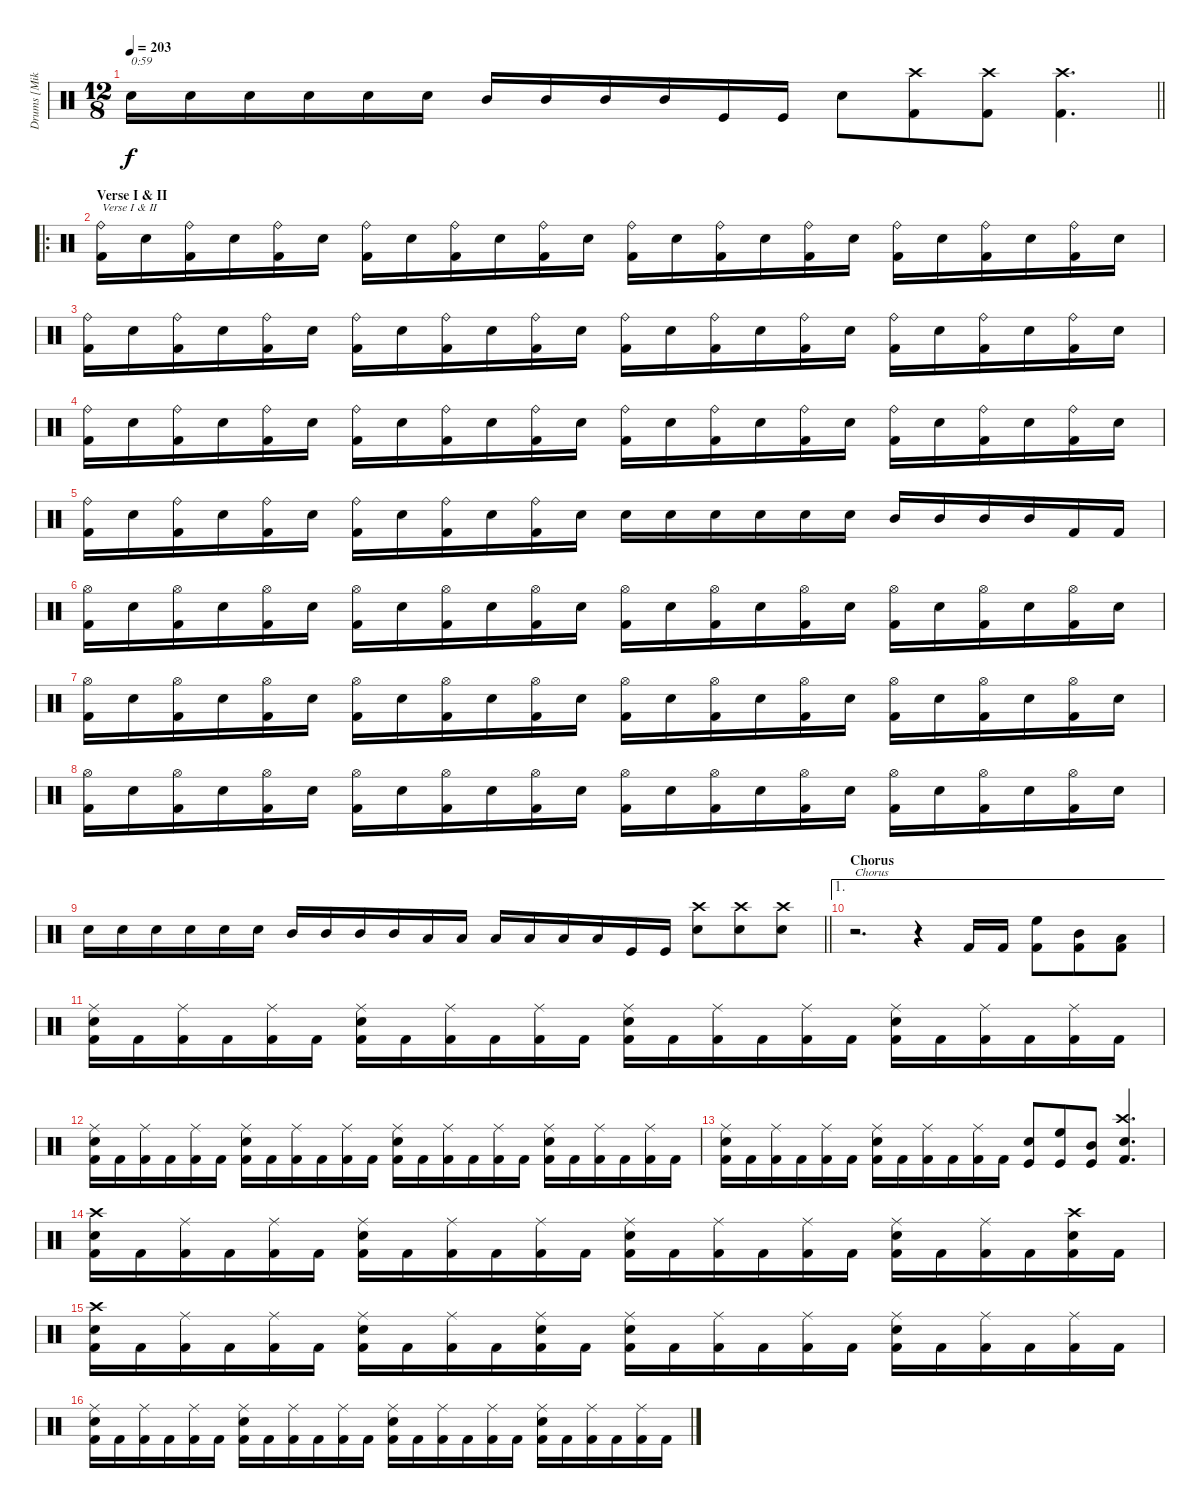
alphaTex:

\track ("Drums [Mike Smith]" "Drums [Mik") {instrument percussion}
\staff {score}
\articulation defaults
\ts (12 8)
\tempo 203
\clef neutral
\barLineRight lightlight
\ks c "Electric Snare (hit)".16{txt "0:59" dy f} "Electric Snare (hit)".16 "Electric Snare (hit)".16 "Electric Snare (hit)".16 "Electric Snare (hit)".16 "Electric Snare (hit)".16 "Mid Tom (hit)".16 "Mid Tom (hit)".16 "Mid Tom (hit)".16 "Mid Tom (hit)".16 "Kick (hit)".16 "Kick (hit)".16 "Electric Snare (hit)".8
("Crash high (hit)" "Kick (hit) 2").8 ("Crash high (hit)" "Kick (hit) 2").8 ("Crash high (hit)" "Kick (hit) 2").4{d} |
\ro
\section ("" "Verse I & II")
("Ride (bell)" "Kick (hit) 2").16{txt "Verse I & II"} "Electric Snare (hit)".16 ("Ride (bell)" "Kick (hit) 2").16 "Electric Snare (hit)".16 ("Ride (bell)" "Kick (hit) 2").16 "Electric Snare (hit)".16 ("Ride (bell)" "Kick (hit) 2").16 "Electric Snare (hit)".16 ("Ride (bell)" "Kick (hit) 2").16 "Electric Snare (hit)".16 ("Ride (bell)" "Kick (hit) 2").16 "Electric Snare (hit)".16 ("Ride (bell)" "Kick (hit) 2").16 "Electric Snare (hit)".16 ("Ride (bell)" "Kick (hit) 2").16 "Electric Snare (hit)".16 ("Ride (bell)" "Kick (hit) 2").16 "Electric Snare (hit)".16 ("Ride (bell)" "Kick (hit) 2").16 "Electric Snare (hit)".16 ("Ride (bell)" "Kick (hit) 2").16 "Electric Snare (hit)".16 ("Ride (bell)" "Kick (hit) 2").16 "Electric Snare (hit)".16 |
("Ride (bell)" "Kick (hit) 2").16 "Electric Snare (hit)".16 ("Ride (bell)" "Kick (hit) 2").16 "Electric Snare (hit)".16 ("Ride (bell)" "Kick (hit) 2").16 "Electric Snare (hit)".16 ("Ride (bell)" "Kick (hit) 2").16 "Electric Snare (hit)".16 ("Ride (bell)" "Kick (hit) 2").16 "Electric Snare (hit)".16 ("Ride (bell)" "Kick (hit) 2").16 "Electric Snare (hit)".16 ("Ride (bell)" "Kick (hit) 2").16 "Electric Snare (hit)".16 ("Ride (bell)" "Kick (hit) 2").16 "Electric Snare (hit)".16 ("Ride (bell)" "Kick (hit) 2").16 "Electric Snare (hit)".16 ("Ride (bell)" "Kick (hit) 2").16 "Electric Snare (hit)".16 ("Ride (bell)" "Kick (hit) 2").16 "Electric Snare (hit)".16 ("Ride (bell)" "Kick (hit) 2").16 "Electric Snare (hit)".16 |
("Ride (bell)" "Kick (hit) 2").16 "Electric Snare (hit)".16 ("Ride (bell)" "Kick (hit) 2").16 "Electric Snare (hit)".16 ("Ride (bell)" "Kick (hit) 2").16 "Electric Snare (hit)".16 ("Ride (bell)" "Kick (hit) 2").16 "Electric Snare (hit)".16 ("Ride (bell)" "Kick (hit) 2").16 "Electric Snare (hit)".16 ("Ride (bell)" "Kick (hit) 2").16 "Electric Snare (hit)".16 ("Ride (bell)" "Kick (hit) 2").16 "Electric Snare (hit)".16 ("Ride (bell)" "Kick (hit) 2").16 "Electric Snare (hit)".16 ("Ride (bell)" "Kick (hit) 2").16 "Electric Snare (hit)".16 ("Ride (bell)" "Kick (hit) 2").16 "Electric Snare (hit)".16 ("Ride (bell)" "Kick (hit) 2").16 "Electric Snare (hit)".16 ("Ride (bell)" "Kick (hit) 2").16 "Electric Snare (hit)".16 |
("Ride (bell)" "Kick (hit) 2").16 "Electric Snare (hit)".16 ("Ride (bell)" "Kick (hit) 2").16 "Electric Snare (hit)".16 ("Ride (bell)" "Kick (hit) 2").16 "Electric Snare (hit)".16 ("Ride (bell)" "Kick (hit) 2").16 "Electric Snare (hit)".16 ("Ride (bell)" "Kick (hit) 2").16 "Electric Snare (hit)".16 ("Ride (bell)" "Kick (hit) 2").16 "Electric Snare (hit)".16 "Electric Snare (hit)".16 "Electric Snare (hit)".16 "Electric Snare (hit)".16 "Electric Snare (hit)".16 "Electric Snare (hit)".16 "Electric Snare (hit)".16 "Mid Tom (hit)".16 "Mid Tom (hit)".16 "Mid Tom (hit)".16 "Mid Tom (hit)".16 "Kick (hit) 2".16 "Kick (hit) 2".16 |
("Hi-Hat (open)" "Kick (hit) 2").16 "Electric Snare (hit)".16 ("Hi-Hat (open)" "Kick (hit) 2").16 "Electric Snare (hit)".16 ("Hi-Hat (open)" "Kick (hit) 2").16 "Electric Snare (hit)".16 ("Hi-Hat (open)" "Kick (hit) 2").16 "Electric Snare (hit)".16 ("Hi-Hat (open)" "Kick (hit) 2").16 "Electric Snare (hit)".16 ("Hi-Hat (open)" "Kick (hit) 2").16 "Electric Snare (hit)".16 ("Hi-Hat (open)" "Kick (hit) 2").16 "Electric Snare (hit)".16 ("Hi-Hat (open)" "Kick (hit) 2").16 "Electric Snare (hit)".16 ("Hi-Hat (open)" "Kick (hit) 2").16 "Electric Snare (hit)".16 ("Hi-Hat (open)" "Kick (hit) 2").16 "Electric Snare (hit)".16 ("Hi-Hat (open)" "Kick (hit) 2").16 "Electric Snare (hit)".16 ("Hi-Hat (open)" "Kick (hit) 2").16 "Electric Snare (hit)".16 |
("Hi-Hat (open)" "Kick (hit) 2").16 "Electric Snare (hit)".16 ("Hi-Hat (open)" "Kick (hit) 2").16 "Electric Snare (hit)".16 ("Hi-Hat (open)" "Kick (hit) 2").16 "Electric Snare (hit)".16 ("Hi-Hat (open)" "Kick (hit) 2").16 "Electric Snare (hit)".16 ("Hi-Hat (open)" "Kick (hit) 2").16 "Electric Snare (hit)".16 ("Hi-Hat (open)" "Kick (hit) 2").16 "Electric Snare (hit)".16 ("Hi-Hat (open)" "Kick (hit) 2").16 "Electric Snare (hit)".16 ("Hi-Hat (open)" "Kick (hit) 2").16 "Electric Snare (hit)".16 ("Hi-Hat (open)" "Kick (hit) 2").16 "Electric Snare (hit)".16 ("Hi-Hat (open)" "Kick (hit) 2").16 "Electric Snare (hit)".16 ("Hi-Hat (open)" "Kick (hit) 2").16 "Electric Snare (hit)".16 ("Hi-Hat (open)" "Kick (hit) 2").16 "Electric Snare (hit)".16 |
("Hi-Hat (open)" "Kick (hit) 2").16 "Electric Snare (hit)".16 ("Hi-Hat (open)" "Kick (hit) 2").16 "Electric Snare (hit)".16 ("Hi-Hat (open)" "Kick (hit) 2").16 "Electric Snare (hit)".16 ("Hi-Hat (open)" "Kick (hit) 2").16 "Electric Snare (hit)".16 ("Hi-Hat (open)" "Kick (hit) 2").16 "Electric Snare (hit)".16 ("Hi-Hat (open)" "Kick (hit) 2").16 "Electric Snare (hit)".16 ("Hi-Hat (open)" "Kick (hit) 2").16 "Electric Snare (hit)".16 ("Hi-Hat (open)" "Kick (hit) 2").16 "Electric Snare (hit)".16 ("Hi-Hat (open)" "Kick (hit) 2").16 "Electric Snare (hit)".16 ("Hi-Hat (open)" "Kick (hit) 2").16 "Electric Snare (hit)".16 ("Hi-Hat (open)" "Kick (hit) 2").16 "Electric Snare (hit)".16 ("Hi-Hat (open)" "Kick (hit) 2").16 "Electric Snare (hit)".16 |
\barLineRight lightlight "Electric Snare (hit)".16 "Electric Snare (hit)".16 "Electric Snare (hit)".16 "Electric Snare (hit)".16 "Electric Snare (hit)".16 "Electric Snare (hit)".16 "Mid Tom (hit)".16 "Mid Tom (hit)".16 "Mid Tom (hit)".16 "Mid Tom (hit)".16 "Low Tom (hit)".16 "Low Tom (hit)".16 "Low Tom (hit)".16 "Low Tom (hit)".16 "Low Tom (hit)".16 "Low Tom (hit)".16 "Kick (hit)".16 "Kick (hit)".16
("Crash high (hit)" "Electric Snare (hit)").8 ("Crash high (hit)" "Electric Snare (hit)").8 ("Crash high (hit)" "Electric Snare (hit)").8 |
\ae 1
\section ("" "Chorus")
r.2{d txt "Chorus"} r.4 "Kick (hit) 2".16 "Kick (hit) 2".16 ("High Floor Tom (hit)" "Kick (hit) 2").8 ("Mid Tom (hit)" "Kick (hit) 2").8 ("Low Tom (hit)" "Kick (hit) 2").8 |
("Ride (middle)" "Electric Snare (hit)" "Kick (hit) 2").16 "Kick (hit) 2".16 ("Ride (middle)" "Kick (hit) 2").16 "Kick (hit) 2".16 ("Ride (middle)" "Kick (hit) 2").16 "Kick (hit) 2".16 ("Ride (middle)" "Electric Snare (hit)" "Kick (hit) 2").16 "Kick (hit) 2".16 ("Ride (middle)" "Kick (hit) 2").16 "Kick (hit) 2".16 ("Ride (middle)" "Kick (hit) 2").16 "Kick (hit) 2".16 ("Ride (middle)" "Electric Snare (hit)" "Kick (hit) 2").16 "Kick (hit) 2".16 ("Ride (middle)" "Kick (hit) 2").16 "Kick (hit) 2".16 ("Ride (middle)" "Kick (hit) 2").16 "Kick (hit) 2".16 ("Ride (middle)" "Electric Snare (hit)" "Kick (hit) 2").16 "Kick (hit) 2".16 ("Ride (middle)" "Kick (hit) 2").16 "Kick (hit) 2".16 ("Ride (middle)" "Kick (hit) 2").16 "Kick (hit) 2".16 |
("Ride (middle)" "Electric Snare (hit)" "Kick (hit) 2").16 "Kick (hit) 2".16 ("Ride (middle)" "Kick (hit) 2").16 "Kick (hit) 2".16 ("Ride (middle)" "Kick (hit) 2").16 "Kick (hit) 2".16 ("Ride (middle)" "Electric Snare (hit)" "Kick (hit) 2").16 "Kick (hit) 2".16 ("Ride (middle)" "Kick (hit) 2").16 "Kick (hit) 2".16 ("Ride (middle)" "Kick (hit) 2").16 "Kick (hit) 2".16 ("Ride (middle)" "Electric Snare (hit)" "Kick (hit) 2").16 "Kick (hit) 2".16 ("Ride (middle)" "Kick (hit) 2").16 "Kick (hit) 2".16 ("Ride (middle)" "Kick (hit) 2").16 "Kick (hit) 2".16 ("Ride (middle)" "Electric Snare (hit)" "Kick (hit) 2").16 "Kick (hit) 2".16 ("Ride (middle)" "Kick (hit) 2").16 "Kick (hit) 2".16 ("Ride (middle)" "Kick (hit) 2").16 "Kick (hit) 2".16 |
("Ride (middle)" "Electric Snare (hit)" "Kick (hit) 2").16 "Kick (hit) 2".16 ("Ride (middle)" "Kick (hit) 2").16 "Kick (hit) 2".16 ("Ride (middle)" "Kick (hit) 2").16 "Kick (hit) 2".16 ("Ride (middle)" "Electric Snare (hit)" "Kick (hit) 2").16 "Kick (hit) 2".16 ("Ride (middle)" "Kick (hit) 2").16 "Kick (hit) 2".16 ("Ride (middle)" "Kick (hit) 2").16 "Kick (hit) 2".16 ("Electric Snare (hit)" "Kick (hit)").8 ("High Floor Tom (hit)" "Kick (hit)").8 ("Mid Tom (hit)" "Kick (hit)").8 ("Crash high (hit)" "Electric Snare (hit)" "Kick (hit) 2").4{d} |
("Crash high (hit)" "Electric Snare (hit)" "Kick (hit) 2").16 "Kick (hit) 2".16 ("Ride (middle)" "Kick (hit) 2").16 "Kick (hit) 2".16 ("Ride (middle)" "Kick (hit) 2").16 "Kick (hit) 2".16 ("Ride (middle)" "Electric Snare (hit)" "Kick (hit) 2").16 "Kick (hit) 2".16 ("Ride (middle)" "Kick (hit) 2").16 "Kick (hit) 2".16 ("Ride (middle)" "Kick (hit) 2").16 "Kick (hit) 2".16 ("Ride (middle)" "Electric Snare (hit)" "Kick (hit) 2").16 "Kick (hit) 2".16 ("Ride (middle)" "Kick (hit) 2").16 "Kick (hit) 2".16 ("Ride (middle)" "Kick (hit) 2").16 "Kick (hit) 2".16 ("Ride (middle)" "Electric Snare (hit)" "Kick (hit) 2").16 "Kick (hit) 2".16 ("Ride (middle)" "Kick (hit) 2").16 "Kick (hit) 2".16 ("Crash high (hit)" "Electric Snare (hit)" "Kick (hit) 2").16 "Kick (hit) 2".16 |
("Crash high (hit)" "Electric Snare (hit)" "Kick (hit) 2").16 "Kick (hit) 2".16 ("Ride (middle)" "Kick (hit) 2").16 "Kick (hit) 2".16 ("Ride (middle)" "Kick (hit) 2").16 "Kick (hit) 2".16 ("Ride (middle)" "Electric Snare (hit)" "Kick (hit) 2").16 "Kick (hit) 2".16 ("Ride (middle)" "Kick (hit) 2").16 "Kick (hit) 2".16 ("Ride (middle)" "Electric Snare (hit)" "Kick (hit) 2").16 "Kick (hit) 2".16 ("Ride (middle)" "Electric Snare (hit)" "Kick (hit) 2").16 "Kick (hit) 2".16 ("Ride (middle)" "Kick (hit) 2").16 "Kick (hit) 2".16 ("Ride (middle)" "Kick (hit) 2").16 "Kick (hit) 2".16 ("Ride (middle)" "Electric Snare (hit)" "Kick (hit) 2").16 "Kick (hit) 2".16 ("Ride (middle)" "Kick (hit) 2").16 "Kick (hit) 2".16 ("Ride (middle)" "Kick (hit) 2").16 "Kick (hit) 2".16 |
("Ride (middle)" "Electric Snare (hit)" "Kick (hit) 2").16 "Kick (hit) 2".16 ("Ride (middle)" "Kick (hit) 2").16 "Kick (hit) 2".16 ("Ride (middle)" "Kick (hit) 2").16 "Kick (hit) 2".16 ("Ride (middle)" "Electric Snare (hit)" "Kick (hit) 2").16 "Kick (hit) 2".16 ("Ride (middle)" "Kick (hit) 2").16 "Kick (hit) 2".16 ("Ride (middle)" "Kick (hit) 2").16 "Kick (hit) 2".16 ("Ride (middle)" "Electric Snare (hit)" "Kick (hit) 2").16 "Kick (hit) 2".16 ("Ride (middle)" "Kick (hit) 2").16 "Kick (hit) 2".16 ("Ride (middle)" "Kick (hit) 2").16 "Kick (hit) 2".16 ("Ride (middle)" "Electric Snare (hit)" "Kick (hit) 2").16 "Kick (hit) 2".16 ("Ride (middle)" "Kick (hit) 2").16 "Kick (hit) 2".16 ("Ride (middle)" "Kick (hit) 2").16 "Kick (hit) 2".16
